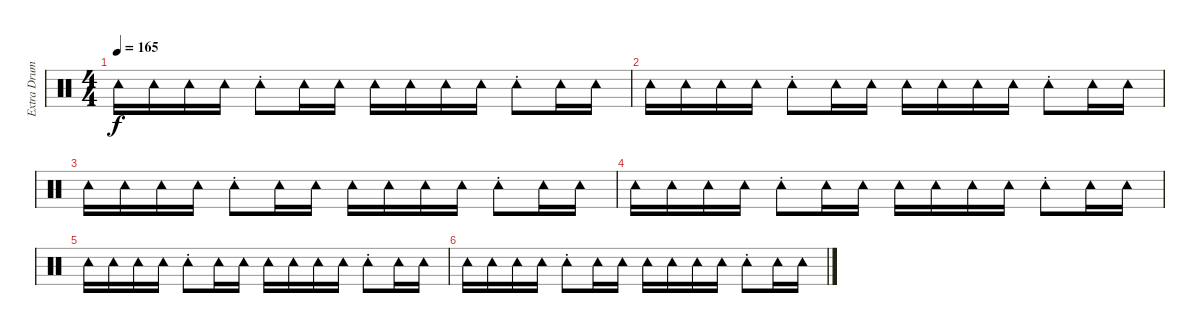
\track ("Extra Drum : Tainaka Risu - Chan" "Extra Drum") {instrument percussion}
\staff {score}
\articulation defaults
\ts (4 4)
\tempo 165
\clef neutral
\ks c "Tambourine (hit)".16{dy f} "Tambourine (hit)".16 "Tambourine (hit)".16 "Tambourine (hit)".16 "Tambourine (hit)"{st}.8 "Tambourine (hit)".16 "Tambourine (hit)".16 "Tambourine (hit)".16 "Tambourine (hit)".16 "Tambourine (hit)".16 "Tambourine (hit)".16 "Tambourine (hit)"{st}.8 "Tambourine (hit)".16 "Tambourine (hit)".16
|
"Tambourine (hit)".16 "Tambourine (hit)".16 "Tambourine (hit)".16 "Tambourine (hit)".16 "Tambourine (hit)"{st}.8 "Tambourine (hit)".16 "Tambourine (hit)".16 "Tambourine (hit)".16 "Tambourine (hit)".16 "Tambourine (hit)".16 "Tambourine (hit)".16 "Tambourine (hit)"{st}.8 "Tambourine (hit)".16 "Tambourine (hit)".16 |
"Tambourine (hit)".16 "Tambourine (hit)".16 "Tambourine (hit)".16 "Tambourine (hit)".16 "Tambourine (hit)"{st}.8 "Tambourine (hit)".16 "Tambourine (hit)".16 "Tambourine (hit)".16 "Tambourine (hit)".16 "Tambourine (hit)".16 "Tambourine (hit)".16 "Tambourine (hit)"{st}.8 "Tambourine (hit)".16 "Tambourine (hit)".16 |
"Tambourine (hit)".16 "Tambourine (hit)".16 "Tambourine (hit)".16 "Tambourine (hit)".16 "Tambourine (hit)"{st}.8 "Tambourine (hit)".16 "Tambourine (hit)".16 "Tambourine (hit)".16 "Tambourine (hit)".16 "Tambourine (hit)".16 "Tambourine (hit)".16 "Tambourine (hit)"{st}.8 "Tambourine (hit)".16 "Tambourine (hit)".16 |
"Tambourine (hit)".16 "Tambourine (hit)".16 "Tambourine (hit)".16 "Tambourine (hit)".16 "Tambourine (hit)"{st}.8 "Tambourine (hit)".16 "Tambourine (hit)".16 "Tambourine (hit)".16 "Tambourine (hit)".16 "Tambourine (hit)".16 "Tambourine (hit)".16 "Tambourine (hit)"{st}.8 "Tambourine (hit)".16 "Tambourine (hit)".16 |
"Tambourine (hit)".16 "Tambourine (hit)".16 "Tambourine (hit)".16 "Tambourine (hit)".16 "Tambourine (hit)"{st}.8 "Tambourine (hit)".16 "Tambourine (hit)".16 "Tambourine (hit)".16 "Tambourine (hit)".16 "Tambourine (hit)".16 "Tambourine (hit)".16 "Tambourine (hit)"{st}.8 "Tambourine (hit)".16 "Tambourine (hit)".16
